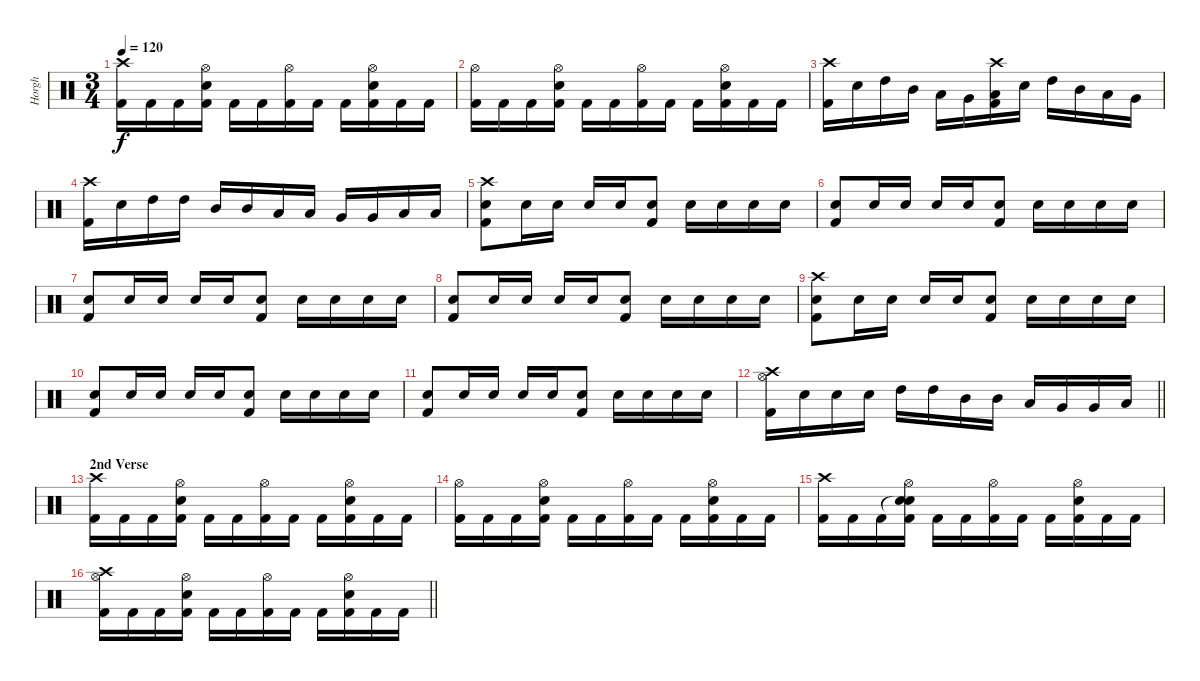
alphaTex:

\track ("Horgh" "Horgh") {instrument percussion}
\staff {score}
\articulation defaults
\ts (3 4)
\tempo 120
\clef neutral
\ks c
("Crash high (hit)" "Kick (hit) 2").16{dy f} "Kick (hit) 2".16 "Kick (hit) 2".16 ("Snare (hit) 2" "Hi-Hat (open)" "Kick (hit) 2").16 "Kick (hit) 2".16 "Kick (hit) 2".16 ("Hi-Hat (open)" "Kick (hit) 2").16 "Kick (hit) 2".16 "Kick (hit) 2".16 ("Snare (hit) 2" "Hi-Hat (open)" "Kick (hit) 2").16 "Kick (hit) 2".16 "Kick (hit) 2".16 |
("Hi-Hat (open)" "Kick (hit) 2").16 "Kick (hit) 2".16 "Kick (hit) 2".16 ("Snare (hit) 2" "Hi-Hat (open)" "Kick (hit) 2").16 "Kick (hit) 2".16 "Kick (hit) 2".16 ("Hi-Hat (open)" "Kick (hit) 2").16 "Kick (hit) 2".16 "Kick (hit) 2".16 ("Snare (hit) 2" "Hi-Hat (open)" "Kick (hit) 2").16 "Kick (hit) 2".16 "Kick (hit) 2".16 |
("Crash high (hit)" "Kick (hit) 2").16 "Snare (hit) 2".16 "High Tom (hit)".16 "Mid Tom (hit)".16 "Low Tom (hit)".16 "Very Low Tom (hit)".16 ("Crash high (hit)" "Low Floor Tom (hit)" "Kick (hit) 2").16 "Snare (hit) 2".16 "High Tom (hit)".16 "Mid Tom (hit)".16 "Low Tom (hit)".16 "Very Low Tom (hit)".16 |
("Crash high (hit)" "Kick (hit) 2").16 "Snare (hit) 2".16 "High Tom (hit)".16 "High Tom (hit)".16 "Mid Tom (hit)".16 "Mid Tom (hit)".16 "Low Tom (hit)".16 "Low Tom (hit)".16 "Very Low Tom (hit)".16 "Very Low Tom (hit)".16 "Low Floor Tom (hit)".16 "Low Floor Tom (hit)".16 |
("Crash high (hit)" "Snare (hit) 2" "Kick (hit) 2").8 "Snare (hit) 2".16 "Snare (hit) 2".16 "Snare (hit) 2".16 "Snare (hit) 2".16 ("Snare (hit) 2" "Kick (hit) 2").8 "Snare (hit) 2".16 "Snare (hit) 2".16 "Snare (hit) 2".16 "Snare (hit) 2".16 |
("Snare (hit) 2" "Kick (hit) 2").8 "Snare (hit) 2".16 "Snare (hit) 2".16 "Snare (hit) 2".16 "Snare (hit) 2".16 ("Snare (hit) 2" "Kick (hit) 2").8 "Snare (hit) 2".16 "Snare (hit) 2".16 "Snare (hit) 2".16 "Snare (hit) 2".16 |
("Snare (hit) 2" "Kick (hit) 2").8 "Snare (hit) 2".16 "Snare (hit) 2".16 "Snare (hit) 2".16 "Snare (hit) 2".16 ("Snare (hit) 2" "Kick (hit) 2").8 "Snare (hit) 2".16 "Snare (hit) 2".16 "Snare (hit) 2".16 "Snare (hit) 2".16 |
("Snare (hit) 2" "Kick (hit) 2").8 "Snare (hit) 2".16 "Snare (hit) 2".16 "Snare (hit) 2".16 "Snare (hit) 2".16 ("Snare (hit) 2" "Kick (hit) 2").8 "Snare (hit) 2".16 "Snare (hit) 2".16 "Snare (hit) 2".16 "Snare (hit) 2".16 |
("Crash high (hit)" "Snare (hit) 2" "Kick (hit) 2").8 "Snare (hit) 2".16 "Snare (hit) 2".16 "Snare (hit) 2".16 "Snare (hit) 2".16 ("Snare (hit) 2" "Kick (hit) 2").8 "Snare (hit) 2".16 "Snare (hit) 2".16 "Snare (hit) 2".16 "Snare (hit) 2".16 |
("Snare (hit) 2" "Kick (hit) 2").8 "Snare (hit) 2".16 "Snare (hit) 2".16 "Snare (hit) 2".16 "Snare (hit) 2".16 ("Snare (hit) 2" "Kick (hit) 2").8 "Snare (hit) 2".16 "Snare (hit) 2".16 "Snare (hit) 2".16 "Snare (hit) 2".16 |
("Snare (hit) 2" "Kick (hit) 2").8 "Snare (hit) 2".16 "Snare (hit) 2".16 "Snare (hit) 2".16 "Snare (hit) 2".16 ("Snare (hit) 2" "Kick (hit) 2").8 "Snare (hit) 2".16 "Snare (hit) 2".16 "Snare (hit) 2".16 "Snare (hit) 2".16 |
\barLineRight lightlight
("Crash high (hit)" "Hi-Hat (open)" "Kick (hit) 2").16 "Snare (hit) 2".16 "Snare (hit) 2".16 "Snare (hit) 2".16 "High Tom (hit)".16 "High Tom (hit)".16 "Mid Tom (hit)".16 "Mid Tom (hit)".16 "Low Tom (hit)".16 "Very Low Tom (hit)".16 "Very Low Tom (hit)".16 "Low Floor Tom (hit)".16 |
\section ("" "2nd Verse")
("Crash high (hit)" "Kick (hit) 2").16 "Kick (hit) 2".16 "Kick (hit) 2".16 ("Snare (hit) 2" "Hi-Hat (open)" "Kick (hit) 2").16 "Kick (hit) 2".16 "Kick (hit) 2".16 ("Hi-Hat (open)" "Kick (hit) 2").16 "Kick (hit) 2".16 "Kick (hit) 2".16 ("Snare (hit) 2" "Hi-Hat (open)" "Kick (hit) 2").16 "Kick (hit) 2".16 "Kick (hit) 2".16 |
("Hi-Hat (open)" "Kick (hit) 2").16 "Kick (hit) 2".16 "Kick (hit) 2".16 ("Snare (hit) 2" "Hi-Hat (open)" "Kick (hit) 2").16 "Kick (hit) 2".16 "Kick (hit) 2".16 ("Hi-Hat (open)" "Kick (hit) 2").16 "Kick (hit) 2".16 "Kick (hit) 2".16 ("Snare (hit) 2" "Hi-Hat (open)" "Kick (hit) 2").16 "Kick (hit) 2".16 "Kick (hit) 2".16 |
("Crash high (hit)" "Kick (hit) 2").16 "Kick (hit) 2".16 "Kick (hit) 2".16 ("Snare (hit)"{t} "Snare (hit) 2" "Hi-Hat (open)" "Kick (hit) 2").16 "Kick (hit) 2".16 "Kick (hit) 2".16 ("Hi-Hat (open)" "Kick (hit) 2").16 "Kick (hit) 2".16 "Kick (hit) 2".16 ("Snare (hit) 2" "Hi-Hat (open)" "Kick (hit) 2").16 "Kick (hit) 2".16 "Kick (hit) 2".16 |
\barLineRight lightlight
("Crash high (hit)" "Hi-Hat (open)" "Kick (hit) 2").16 "Kick (hit) 2".16 "Kick (hit) 2".16 ("Snare (hit) 2" "Hi-Hat (open)" "Kick (hit) 2").16 "Kick (hit) 2".16 "Kick (hit) 2".16 ("Hi-Hat (open)" "Kick (hit) 2").16 "Kick (hit) 2".16 "Kick (hit) 2".16 ("Snare (hit) 2" "Hi-Hat (open)" "Kick (hit) 2").16 "Kick (hit) 2".16 "Kick (hit) 2".16
